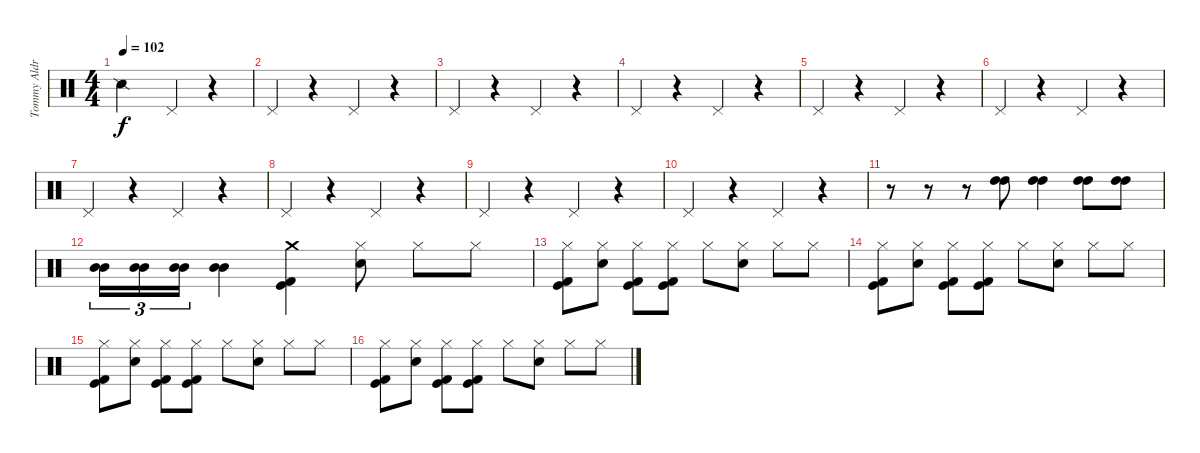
\track ("Tommy Aldridge" "Tommy Aldr") {instrument percussion}
\staff {score}
\articulation defaults
\ts (4 4)
\tempo 102
\clef neutral
\ks c "Snare (side stick) 2".2{dy f} "Pedal Hi-Hat (hit)".4
r.4 |
"Pedal Hi-Hat (hit)".4 r.4 "Pedal Hi-Hat (hit)".4 r.4 |
"Pedal Hi-Hat (hit)".4 r.4 "Pedal Hi-Hat (hit)".4 r.4 |
"Pedal Hi-Hat (hit)".4 r.4 "Pedal Hi-Hat (hit)".4 r.4 |
"Pedal Hi-Hat (hit)".4 r.4 "Pedal Hi-Hat (hit)".4 r.4 |
"Pedal Hi-Hat (hit)".4 r.4 "Pedal Hi-Hat (hit)".4 r.4 |
"Pedal Hi-Hat (hit)".4 r.4 "Pedal Hi-Hat (hit)".4 r.4 |
"Pedal Hi-Hat (hit)".4 r.4 "Pedal Hi-Hat (hit)".4 r.4 |
"Pedal Hi-Hat (hit)".4 r.4 "Pedal Hi-Hat (hit)".4 r.4 |
"Pedal Hi-Hat (hit)".4 r.4 "Pedal Hi-Hat (hit)".4 r.4 |
r.8 r.8 r.8 ("High Tom (hit)" "High Tom (hit)").8 ("High Tom (hit)" "High Tom (hit)").4 ("High Tom (hit)" "High Tom (hit)").8 ("High Tom (hit)" "High Tom (hit)").8 |
("Mid Tom (hit)" "Mid Tom (hit)").16{tu (3 2)} ("Mid Tom (hit)" "Mid Tom (hit)").16{tu (3 2)} ("Mid Tom (hit)" "Mid Tom (hit)").16{tu (3 2)} ("Mid Tom (hit)" "Mid Tom (hit)").4 ("Crash medium (hit)" "Kick (hit)" "Kick (hit) 2").4 ("Hi-Hat (closed)" "Electric Snare (hit)").8 "Hi-Hat (closed)".8 "Hi-Hat (closed)".8 |
("Hi-Hat (closed)" "Kick (hit)" "Kick (hit) 2").8 ("Hi-Hat (closed)" "Electric Snare (hit)").8 ("Hi-Hat (closed)" "Kick (hit)" "Kick (hit) 2").8 ("Hi-Hat (closed)" "Kick (hit)" "Kick (hit) 2").8 "Hi-Hat (closed)".8 ("Hi-Hat (closed)" "Electric Snare (hit)").8 "Hi-Hat (closed)".8 "Hi-Hat (closed)".8 |
("Hi-Hat (closed)" "Kick (hit)" "Kick (hit) 2").8 ("Hi-Hat (closed)" "Electric Snare (hit)").8 ("Hi-Hat (closed)" "Kick (hit)" "Kick (hit) 2").8 ("Hi-Hat (closed)" "Kick (hit)" "Kick (hit) 2").8 "Hi-Hat (closed)".8 ("Hi-Hat (closed)" "Electric Snare (hit)").8 "Hi-Hat (closed)".8 "Hi-Hat (closed)".8 |
("Hi-Hat (closed)" "Kick (hit)" "Kick (hit) 2").8 ("Hi-Hat (closed)" "Electric Snare (hit)").8 ("Hi-Hat (closed)" "Kick (hit)" "Kick (hit) 2").8 ("Hi-Hat (closed)" "Kick (hit)" "Kick (hit) 2").8 "Hi-Hat (closed)".8 ("Hi-Hat (closed)" "Electric Snare (hit)").8 "Hi-Hat (closed)".8 "Hi-Hat (closed)".8 |
("Hi-Hat (closed)" "Kick (hit)" "Kick (hit) 2").8 ("Hi-Hat (closed)" "Electric Snare (hit)").8 ("Hi-Hat (closed)" "Kick (hit)" "Kick (hit) 2").8 ("Hi-Hat (closed)" "Kick (hit)" "Kick (hit) 2").8 "Hi-Hat (closed)".8 ("Hi-Hat (closed)" "Electric Snare (hit)").8 "Hi-Hat (closed)".8 "Hi-Hat (closed)".8
